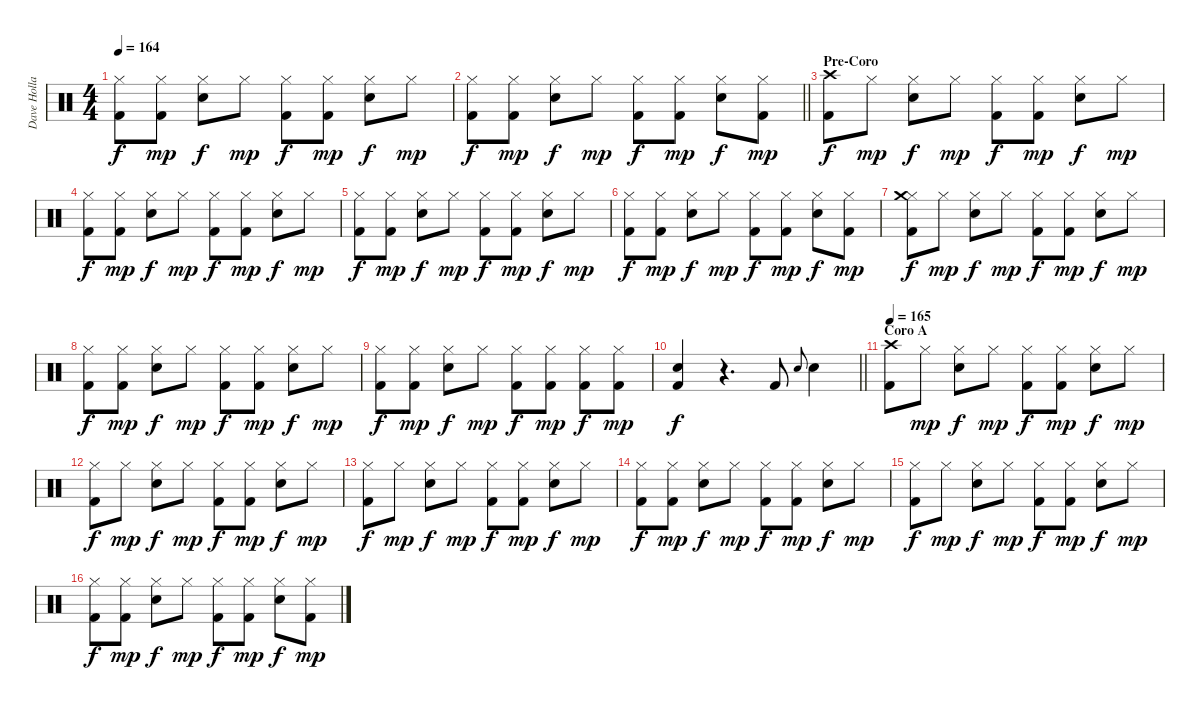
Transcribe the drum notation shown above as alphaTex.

\track ("Dave Holland" "Dave Holla") {instrument percussion}
\staff {score}
\articulation defaults
\ts (4 4)
\tempo 164
\clef neutral
\ks c
("Hi-Hat (closed)" "Kick (hit) 2").8{dy f} ("Hi-Hat (closed)" "Kick (hit) 2").8{dy mp} ("Hi-Hat (closed)" "Snare (hit) 2").8{dy f} "Hi-Hat (closed)".8{dy mp} ("Hi-Hat (closed)" "Kick (hit) 2").8{dy f} ("Hi-Hat (closed)" "Kick (hit) 2").8{dy mp} ("Hi-Hat (closed)" "Snare (hit) 2").8{dy f} "Hi-Hat (closed)".8{dy mp} |
\barLineRight lightlight
("Hi-Hat (closed)" "Kick (hit) 2").8{dy f} ("Hi-Hat (closed)" "Kick (hit) 2").8{dy mp} ("Hi-Hat (closed)" "Snare (hit) 2").8{dy f} "Hi-Hat (closed)".8{dy mp} ("Hi-Hat (closed)" "Kick (hit) 2").8{dy f} ("Hi-Hat (closed)" "Kick (hit) 2").8{dy mp} ("Hi-Hat (closed)" "Snare (hit) 2").8{dy f} ("Hi-Hat (closed)" "Kick (hit) 2").8{dy mp} |
\section ("" "Pre-Coro")
("Crash high (hit)" "Kick (hit) 2").8{dy f} "Hi-Hat (closed)".8{dy mp} ("Hi-Hat (closed)" "Snare (hit) 2").8{dy f} "Hi-Hat (closed)".8{dy mp} ("Hi-Hat (closed)" "Kick (hit) 2").8{dy f} ("Hi-Hat (closed)" "Kick (hit) 2").8{dy mp} ("Hi-Hat (closed)" "Snare (hit) 2").8{dy f} "Hi-Hat (closed)".8{dy mp} |
("Hi-Hat (closed)" "Kick (hit) 2").8{dy f} ("Hi-Hat (closed)" "Kick (hit) 2").8{dy mp} ("Hi-Hat (closed)" "Snare (hit) 2").8{dy f} "Hi-Hat (closed)".8{dy mp} ("Hi-Hat (closed)" "Kick (hit) 2").8{dy f} ("Hi-Hat (closed)" "Kick (hit) 2").8{dy mp} ("Hi-Hat (closed)" "Snare (hit) 2").8{dy f} "Hi-Hat (closed)".8{dy mp} |
("Hi-Hat (closed)" "Kick (hit) 2").8{dy f} ("Hi-Hat (closed)" "Kick (hit) 2").8{dy mp} ("Hi-Hat (closed)" "Snare (hit) 2").8{dy f} "Hi-Hat (closed)".8{dy mp} ("Hi-Hat (closed)" "Kick (hit) 2").8{dy f} ("Hi-Hat (closed)" "Kick (hit) 2").8{dy mp} ("Hi-Hat (closed)" "Snare (hit) 2").8{dy f} "Hi-Hat (closed)".8{dy mp} |
("Hi-Hat (closed)" "Kick (hit) 2").8{dy f} ("Hi-Hat (closed)" "Kick (hit) 2").8{dy mp} ("Hi-Hat (closed)" "Snare (hit) 2").8{dy f} "Hi-Hat (closed)".8{dy mp} ("Hi-Hat (closed)" "Kick (hit) 2").8{dy f} ("Hi-Hat (closed)" "Kick (hit) 2").8{dy mp} ("Hi-Hat (closed)" "Snare (hit) 2").8{dy f} ("Hi-Hat (closed)" "Kick (hit) 2").8{dy mp} |
("Hi-Hat (closed)" "Crash medium (hit)" "Kick (hit) 2").8{dy f} "Hi-Hat (closed)".8{dy mp} ("Hi-Hat (closed)" "Snare (hit) 2").8{dy f} "Hi-Hat (closed)".8{dy mp} ("Hi-Hat (closed)" "Kick (hit) 2").8{dy f} ("Hi-Hat (closed)" "Kick (hit) 2").8{dy mp} ("Hi-Hat (closed)" "Snare (hit) 2").8{dy f} "Hi-Hat (closed)".8{dy mp} |
("Hi-Hat (closed)" "Kick (hit) 2").8{dy f} ("Hi-Hat (closed)" "Kick (hit) 2").8{dy mp} ("Hi-Hat (closed)" "Snare (hit) 2").8{dy f} "Hi-Hat (closed)".8{dy mp} ("Hi-Hat (closed)" "Kick (hit) 2").8{dy f} ("Hi-Hat (closed)" "Kick (hit) 2").8{dy mp} ("Hi-Hat (closed)" "Snare (hit) 2").8{dy f} "Hi-Hat (closed)".8{dy mp} |
("Hi-Hat (closed)" "Kick (hit) 2").8{dy f} ("Hi-Hat (closed)" "Kick (hit) 2").8{dy mp} ("Hi-Hat (closed)" "Snare (hit) 2").8{dy f} "Hi-Hat (closed)".8{dy mp} ("Hi-Hat (closed)" "Kick (hit) 2").8{dy f} ("Hi-Hat (closed)" "Kick (hit) 2").8{dy mp} ("Hi-Hat (closed)" "Kick (hit) 2").8{dy f} ("Hi-Hat (closed)" "Kick (hit) 2").8{dy mp} |
\barLineRight lightlight
("Snare (hit) 2" "Kick (hit) 2").4{dy f} r.4{d} "Kick (hit) 2".8 "Snare (hit) 2".8{gr onbeat} "Snare (hit) 2".4 |
\section ("" "Coro A")
\tempo 165
("Crash high (hit)" "Kick (hit) 2").8 "Hi-Hat (closed)".8{dy mp} ("Hi-Hat (closed)" "Snare (hit) 2").8{dy f} "Hi-Hat (closed)".8{dy mp} ("Hi-Hat (closed)" "Kick (hit) 2").8{dy f} ("Hi-Hat (closed)" "Kick (hit) 2").8{dy mp} ("Hi-Hat (closed)" "Snare (hit) 2").8{dy f} "Hi-Hat (closed)".8{dy mp} |
("Hi-Hat (closed)" "Kick (hit) 2").8{dy f} "Hi-Hat (closed)".8{dy mp} ("Hi-Hat (closed)" "Snare (hit) 2").8{dy f} "Hi-Hat (closed)".8{dy mp} ("Hi-Hat (closed)" "Kick (hit) 2").8{dy f} ("Hi-Hat (closed)" "Kick (hit) 2").8{dy mp} ("Hi-Hat (closed)" "Snare (hit) 2").8{dy f} "Hi-Hat (closed)".8{dy mp} |
("Hi-Hat (closed)" "Kick (hit) 2").8{dy f} "Hi-Hat (closed)".8{dy mp} ("Hi-Hat (closed)" "Snare (hit) 2").8{dy f} "Hi-Hat (closed)".8{dy mp} ("Hi-Hat (closed)" "Kick (hit) 2").8{dy f} ("Hi-Hat (closed)" "Kick (hit) 2").8{dy mp} ("Hi-Hat (closed)" "Snare (hit) 2").8{dy f} "Hi-Hat (closed)".8{dy mp} |
("Hi-Hat (closed)" "Kick (hit) 2").8{dy f} ("Hi-Hat (closed)" "Kick (hit) 2").8{dy mp} ("Hi-Hat (closed)" "Snare (hit) 2").8{dy f} "Hi-Hat (closed)".8{dy mp} ("Hi-Hat (closed)" "Kick (hit) 2").8{dy f} ("Hi-Hat (closed)" "Kick (hit) 2").8{dy mp} ("Hi-Hat (closed)" "Snare (hit) 2").8{dy f} "Hi-Hat (closed)".8{dy mp} |
("Hi-Hat (closed)" "Kick (hit) 2").8{dy f} "Hi-Hat (closed)".8{dy mp} ("Hi-Hat (closed)" "Snare (hit) 2").8{dy f} "Hi-Hat (closed)".8{dy mp} ("Hi-Hat (closed)" "Kick (hit) 2").8{dy f} ("Hi-Hat (closed)" "Kick (hit) 2").8{dy mp} ("Hi-Hat (closed)" "Snare (hit) 2").8{dy f} "Hi-Hat (closed)".8{dy mp} |
("Hi-Hat (closed)" "Kick (hit) 2").8{dy f} ("Hi-Hat (closed)" "Kick (hit) 2").8{dy mp} ("Hi-Hat (closed)" "Snare (hit) 2").8{dy f} "Hi-Hat (closed)".8{dy mp} ("Hi-Hat (closed)" "Kick (hit) 2").8{dy f} ("Hi-Hat (closed)" "Kick (hit) 2").8{dy mp} ("Hi-Hat (closed)" "Snare (hit) 2").8{dy f} ("Hi-Hat (closed)" "Kick (hit) 2").8{dy mp}
